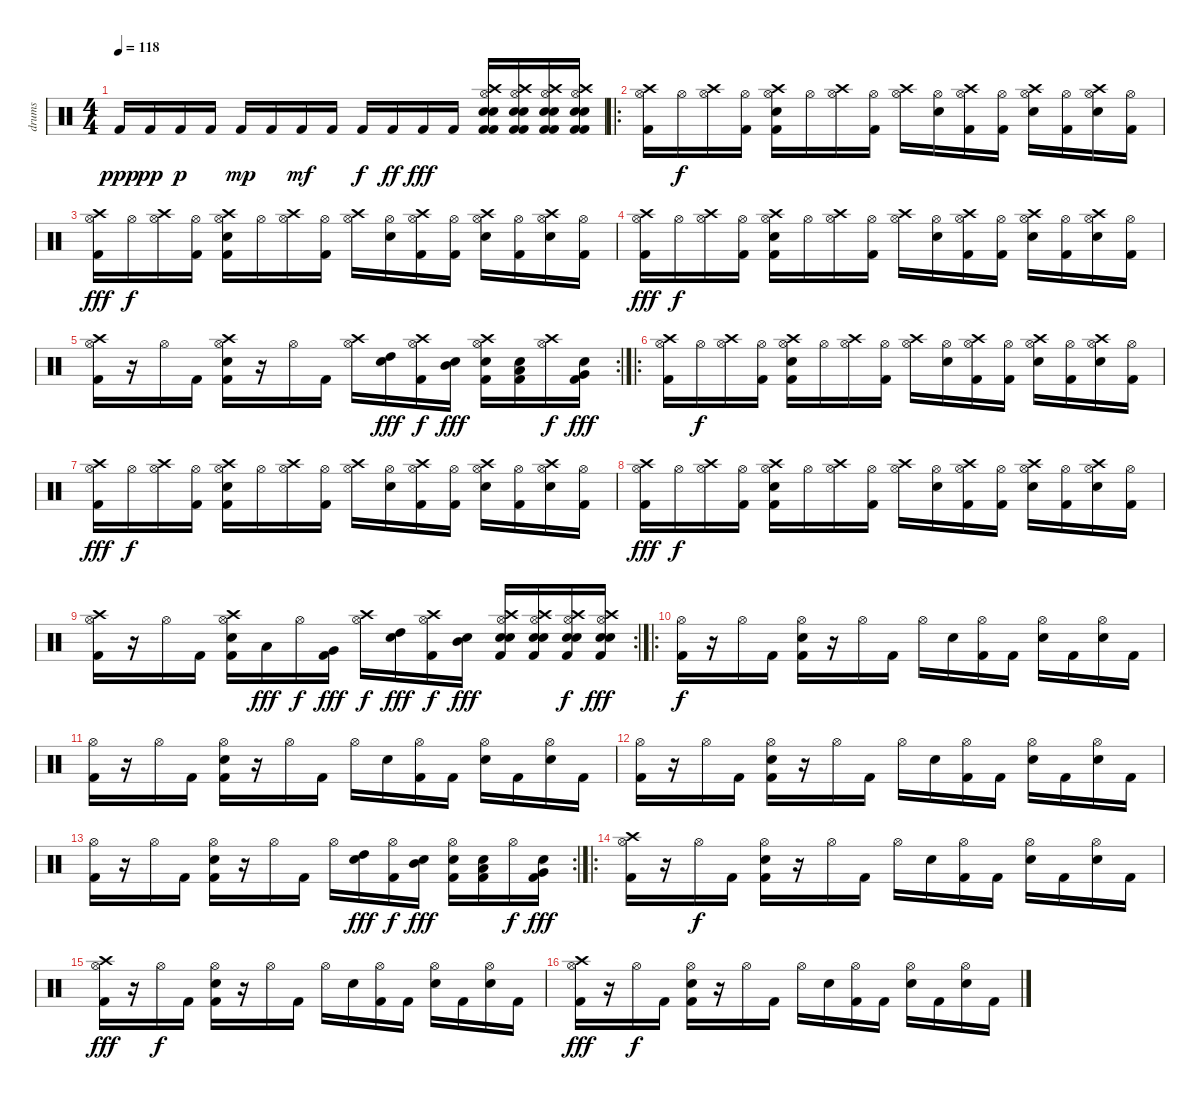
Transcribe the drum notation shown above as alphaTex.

\track ("drums" "drums") {instrument percussion}
\staff {score}
\articulation defaults
\ts (4 4)
\tempo 118
\clef neutral
\ks c "Kick (hit) 2".16{dy ppp} "Kick (hit) 2".16{dy pp} "Kick (hit) 2".16{dy p} "Kick (hit) 2".16 "Kick (hit) 2".16{dy mp} "Kick (hit) 2".16 "Kick (hit) 2".16{dy mf} "Kick (hit) 2".16 "Kick (hit) 2".16{dy f} "Kick (hit) 2".16{dy ff} "Kick (hit) 2".16{dy fff} "Kick (hit) 2".16
("Hi-Hat (open)" "Crash high (hit)" "Snare (hit) 2" "Kick (hit) 2" "Electric Snare (hit)" "Kick (hit) 2").16 ("Hi-Hat (open)" "Crash high (hit)" "Snare (hit) 2" "Kick (hit) 2" "Electric Snare (hit)" "Kick (hit) 2").16 ("Hi-Hat (open)" "Crash high (hit)" "Snare (hit) 2" "Kick (hit) 2" "Electric Snare (hit)" "Kick (hit) 2").16 ("Hi-Hat (open)" "Crash high (hit)" "Snare (hit) 2" "Kick (hit) 2" "Electric Snare (hit)" "Kick (hit) 2").16 |
\ro
("Hi-Hat (open)" "Crash high (hit)" "Kick (hit) 2").16 "Hi-Hat (open)".16{dy f} ("Hi-Hat (open)" "Crash high (hit)").16 ("Hi-Hat (open)" "Kick (hit) 2").16 ("Hi-Hat (open)" "Crash high (hit)" "Electric Snare (hit)" "Kick (hit) 2").16 "Hi-Hat (open)".16 ("Hi-Hat (open)" "Crash high (hit)").16 ("Hi-Hat (open)" "Kick (hit) 2").16 ("Hi-Hat (open)" "Crash high (hit)").16 ("Hi-Hat (open)" "Electric Snare (hit)").16 ("Hi-Hat (open)" "Crash high (hit)" "Kick (hit) 2").16 ("Hi-Hat (open)" "Kick (hit) 2").16 ("Hi-Hat (open)" "Crash high (hit)" "Electric Snare (hit)").16 ("Hi-Hat (open)" "Kick (hit) 2").16 ("Hi-Hat (open)" "Crash high (hit)" "Electric Snare (hit)").16 ("Hi-Hat (open)" "Kick (hit) 2").16 |
("Hi-Hat (open)" "Crash high (hit)" "Kick (hit) 2").16{dy fff} "Hi-Hat (open)".16{dy f} ("Hi-Hat (open)" "Crash high (hit)").16 ("Hi-Hat (open)" "Kick (hit) 2").16 ("Hi-Hat (open)" "Crash high (hit)" "Electric Snare (hit)" "Kick (hit) 2").16 "Hi-Hat (open)".16 ("Hi-Hat (open)" "Crash high (hit)").16 ("Hi-Hat (open)" "Kick (hit) 2").16 ("Hi-Hat (open)" "Crash high (hit)").16 ("Hi-Hat (open)" "Electric Snare (hit)").16 ("Hi-Hat (open)" "Crash high (hit)" "Kick (hit) 2").16 ("Hi-Hat (open)" "Kick (hit) 2").16 ("Hi-Hat (open)" "Crash high (hit)" "Electric Snare (hit)").16 ("Hi-Hat (open)" "Kick (hit) 2").16 ("Hi-Hat (open)" "Crash high (hit)" "Electric Snare (hit)").16 ("Hi-Hat (open)" "Kick (hit) 2").16 |
("Hi-Hat (open)" "Crash high (hit)" "Kick (hit) 2").16{dy fff} "Hi-Hat (open)".16{dy f} ("Hi-Hat (open)" "Crash high (hit)").16 ("Hi-Hat (open)" "Kick (hit) 2").16 ("Hi-Hat (open)" "Crash high (hit)" "Electric Snare (hit)" "Kick (hit) 2").16 "Hi-Hat (open)".16 ("Hi-Hat (open)" "Crash high (hit)").16 ("Hi-Hat (open)" "Kick (hit) 2").16 ("Hi-Hat (open)" "Crash high (hit)").16 ("Hi-Hat (open)" "Electric Snare (hit)").16 ("Hi-Hat (open)" "Crash high (hit)" "Kick (hit) 2").16 ("Hi-Hat (open)" "Kick (hit) 2").16 ("Hi-Hat (open)" "Crash high (hit)" "Electric Snare (hit)").16 ("Hi-Hat (open)" "Kick (hit) 2").16 ("Hi-Hat (open)" "Crash high (hit)" "Electric Snare (hit)").16 ("Hi-Hat (open)" "Kick (hit) 2").16 |
\rc 2
("Hi-Hat (open)" "Crash high (hit)" "Kick (hit) 2").16 r.16 "Hi-Hat (open)".16 "Kick (hit) 2".16 ("Hi-Hat (open)" "Crash high (hit)" "Electric Snare (hit)" "Kick (hit) 2").16 r.16 "Hi-Hat (open)".16 "Kick (hit) 2".16 ("Hi-Hat (open)" "Crash high (hit)").16 ("High Tom (hit)" "Electric Snare (hit)").16{dy fff} ("Hi-Hat (open)" "Crash high (hit)" "Kick (hit) 2").16{dy f} ("Mid Tom (hit)" "Electric Snare (hit)").16{dy fff} ("Hi-Hat (open)" "Crash high (hit)" "Electric Snare (hit)" "Kick (hit) 2").16 ("Low Tom (hit)" "Electric Snare (hit)" "Kick (hit) 2").16 ("Hi-Hat (open)" "Crash high (hit)").16{dy f} ("Very Low Tom (hit)" "Electric Snare (hit)" "Kick (hit) 2").16{dy fff} |
\ro
("Hi-Hat (open)" "Crash high (hit)" "Kick (hit) 2").16 "Hi-Hat (open)".16{dy f} ("Hi-Hat (open)" "Crash high (hit)").16 ("Hi-Hat (open)" "Kick (hit) 2").16 ("Hi-Hat (open)" "Crash high (hit)" "Electric Snare (hit)" "Kick (hit) 2").16 "Hi-Hat (open)".16 ("Hi-Hat (open)" "Crash high (hit)").16 ("Hi-Hat (open)" "Kick (hit) 2").16 ("Hi-Hat (open)" "Crash high (hit)").16 ("Hi-Hat (open)" "Electric Snare (hit)").16 ("Hi-Hat (open)" "Crash high (hit)" "Kick (hit) 2").16 ("Hi-Hat (open)" "Kick (hit) 2").16 ("Hi-Hat (open)" "Crash high (hit)" "Electric Snare (hit)").16 ("Hi-Hat (open)" "Kick (hit) 2").16 ("Hi-Hat (open)" "Crash high (hit)" "Electric Snare (hit)").16 ("Hi-Hat (open)" "Kick (hit) 2").16 |
("Hi-Hat (open)" "Crash high (hit)" "Kick (hit) 2").16{dy fff} "Hi-Hat (open)".16{dy f} ("Hi-Hat (open)" "Crash high (hit)").16 ("Hi-Hat (open)" "Kick (hit) 2").16 ("Hi-Hat (open)" "Crash high (hit)" "Electric Snare (hit)" "Kick (hit) 2").16 "Hi-Hat (open)".16 ("Hi-Hat (open)" "Crash high (hit)").16 ("Hi-Hat (open)" "Kick (hit) 2").16 ("Hi-Hat (open)" "Crash high (hit)").16 ("Hi-Hat (open)" "Electric Snare (hit)").16 ("Hi-Hat (open)" "Crash high (hit)" "Kick (hit) 2").16 ("Hi-Hat (open)" "Kick (hit) 2").16 ("Hi-Hat (open)" "Crash high (hit)" "Electric Snare (hit)").16 ("Hi-Hat (open)" "Kick (hit) 2").16 ("Hi-Hat (open)" "Crash high (hit)" "Electric Snare (hit)").16 ("Hi-Hat (open)" "Kick (hit) 2").16 |
("Hi-Hat (open)" "Crash high (hit)" "Kick (hit) 2").16{dy fff} "Hi-Hat (open)".16{dy f} ("Hi-Hat (open)" "Crash high (hit)").16 ("Hi-Hat (open)" "Kick (hit) 2").16 ("Hi-Hat (open)" "Crash high (hit)" "Electric Snare (hit)" "Kick (hit) 2").16 "Hi-Hat (open)".16 ("Hi-Hat (open)" "Crash high (hit)").16 ("Hi-Hat (open)" "Kick (hit) 2").16 ("Hi-Hat (open)" "Crash high (hit)").16 ("Hi-Hat (open)" "Electric Snare (hit)").16 ("Hi-Hat (open)" "Crash high (hit)" "Kick (hit) 2").16 ("Hi-Hat (open)" "Kick (hit) 2").16 ("Hi-Hat (open)" "Crash high (hit)" "Electric Snare (hit)").16 ("Hi-Hat (open)" "Kick (hit) 2").16 ("Hi-Hat (open)" "Crash high (hit)" "Electric Snare (hit)").16 ("Hi-Hat (open)" "Kick (hit) 2").16 |
\rc 2
("Hi-Hat (open)" "Crash high (hit)" "Kick (hit) 2").16 r.16 "Hi-Hat (open)".16 "Kick (hit) 2".16 ("Hi-Hat (open)" "Crash high (hit)" "Electric Snare (hit)" "Kick (hit) 2").16 "Low Tom (hit)".16{dy fff} "Hi-Hat (open)".16{dy f} ("Very Low Tom (hit)" "Kick (hit) 2").16{dy fff} ("Hi-Hat (open)" "Crash high (hit)").16{dy f} ("High Tom (hit)" "Electric Snare (hit)").16{dy fff} ("Hi-Hat (open)" "Crash high (hit)" "Kick (hit) 2").16{dy f} ("Mid Tom (hit)" "Electric Snare (hit)").16{dy fff} ("Hi-Hat (open)" "Crash high (hit)" "Electric Snare (hit)" "Electric Snare (hit)" "Kick (hit) 2").16 ("Hi-Hat (open)" "Crash high (hit)" "Electric Snare (hit)" "Electric Snare (hit)" "Kick (hit) 2").16 ("Hi-Hat (open)" "Crash high (hit)" "Electric Snare (hit)" "Electric Snare (hit)" "Kick (hit) 2").16{dy f} ("Hi-Hat (open)" "Crash high (hit)" "Electric Snare (hit)" "Electric Snare (hit)" "Kick (hit) 2").16{dy fff} |
\ro
("Hi-Hat (open)" "Kick (hit) 2").16{dy f} r.16 "Hi-Hat (open)".16 "Kick (hit) 2".16 ("Hi-Hat (open)" "Electric Snare (hit)" "Kick (hit) 2").16 r.16 "Hi-Hat (open)".16 "Kick (hit) 2".16 "Hi-Hat (open)".16 "Electric Snare (hit)".16 ("Hi-Hat (open)" "Kick (hit) 2").16 "Kick (hit) 2".16 ("Hi-Hat (open)" "Electric Snare (hit)").16 "Kick (hit) 2".16 ("Hi-Hat (open)" "Electric Snare (hit)").16 "Kick (hit) 2".16 |
("Hi-Hat (open)" "Kick (hit) 2").16 r.16 "Hi-Hat (open)".16 "Kick (hit) 2".16 ("Hi-Hat (open)" "Electric Snare (hit)" "Kick (hit) 2").16 r.16 "Hi-Hat (open)".16 "Kick (hit) 2".16 "Hi-Hat (open)".16 "Electric Snare (hit)".16 ("Hi-Hat (open)" "Kick (hit) 2").16 "Kick (hit) 2".16 ("Hi-Hat (open)" "Electric Snare (hit)").16 "Kick (hit) 2".16 ("Hi-Hat (open)" "Electric Snare (hit)").16 "Kick (hit) 2".16 |
("Hi-Hat (open)" "Kick (hit) 2").16 r.16 "Hi-Hat (open)".16 "Kick (hit) 2".16 ("Hi-Hat (open)" "Electric Snare (hit)" "Kick (hit) 2").16 r.16 "Hi-Hat (open)".16 "Kick (hit) 2".16 "Hi-Hat (open)".16 "Electric Snare (hit)".16 ("Hi-Hat (open)" "Kick (hit) 2").16 "Kick (hit) 2".16 ("Hi-Hat (open)" "Electric Snare (hit)").16 "Kick (hit) 2".16 ("Hi-Hat (open)" "Electric Snare (hit)").16 "Kick (hit) 2".16 |
\rc 2
("Hi-Hat (open)" "Kick (hit) 2").16 r.16 "Hi-Hat (open)".16 "Kick (hit) 2".16 ("Hi-Hat (open)" "Electric Snare (hit)" "Kick (hit) 2").16 r.16 "Hi-Hat (open)".16 "Kick (hit) 2".16 "Hi-Hat (open)".16 ("High Tom (hit)" "Electric Snare (hit)").16{dy fff} ("Hi-Hat (open)" "Kick (hit) 2").16{dy f} ("Mid Tom (hit)" "Electric Snare (hit)").16{dy fff} ("Hi-Hat (open)" "Electric Snare (hit)" "Kick (hit) 2").16 ("Low Tom (hit)" "Electric Snare (hit)" "Kick (hit) 2").16 "Hi-Hat (open)".16{dy f} ("Very Low Tom (hit)" "Electric Snare (hit)" "Kick (hit) 2").16{dy fff} |
\ro
("Hi-Hat (open)" "Crash high (hit)" "Kick (hit) 2").16 r.16 "Hi-Hat (open)".16{dy f} "Kick (hit) 2".16 ("Hi-Hat (open)" "Electric Snare (hit)" "Kick (hit) 2").16 r.16 "Hi-Hat (open)".16 "Kick (hit) 2".16 "Hi-Hat (open)".16 "Electric Snare (hit)".16 ("Hi-Hat (open)" "Kick (hit) 2").16 "Kick (hit) 2".16 ("Hi-Hat (open)" "Electric Snare (hit)").16 "Kick (hit) 2".16 ("Hi-Hat (open)" "Electric Snare (hit)").16 "Kick (hit) 2".16 |
("Hi-Hat (open)" "Crash high (hit)" "Kick (hit) 2").16{dy fff} r.16 "Hi-Hat (open)".16{dy f} "Kick (hit) 2".16 ("Hi-Hat (open)" "Electric Snare (hit)" "Kick (hit) 2").16 r.16 "Hi-Hat (open)".16 "Kick (hit) 2".16 "Hi-Hat (open)".16 "Electric Snare (hit)".16 ("Hi-Hat (open)" "Kick (hit) 2").16 "Kick (hit) 2".16 ("Hi-Hat (open)" "Electric Snare (hit)").16 "Kick (hit) 2".16 ("Hi-Hat (open)" "Electric Snare (hit)").16 "Kick (hit) 2".16 |
("Hi-Hat (open)" "Crash high (hit)" "Kick (hit) 2").16{dy fff} r.16 "Hi-Hat (open)".16{dy f} "Kick (hit) 2".16 ("Hi-Hat (open)" "Electric Snare (hit)" "Kick (hit) 2").16 r.16 "Hi-Hat (open)".16 "Kick (hit) 2".16 "Hi-Hat (open)".16 "Electric Snare (hit)".16 ("Hi-Hat (open)" "Kick (hit) 2").16 "Kick (hit) 2".16 ("Hi-Hat (open)" "Electric Snare (hit)").16 "Kick (hit) 2".16 ("Hi-Hat (open)" "Electric Snare (hit)").16 "Kick (hit) 2".16
